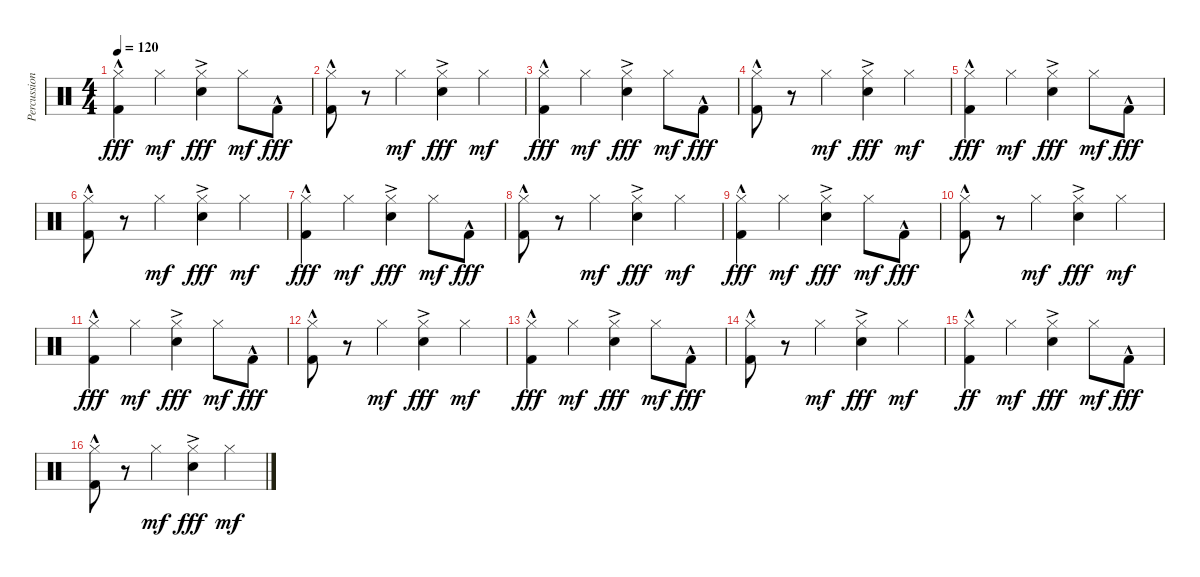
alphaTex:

\track ("Percussion" "Percussion") {instrument percussion}
\staff {score}
\articulation defaults
\ts (4 4)
\tempo 120
\clef neutral
\ks c
("Hi-Hat (closed)" "Kick (hit) 2"{hac}).4{dy fff} "Hi-Hat (closed)".4{dy mf} ("Hi-Hat (closed)" "Electric Snare (hit)"{ac}).4{dy fff} "Hi-Hat (closed)".8{dy mf} "Kick (hit) 2"{hac}.8{dy fff} |
("Hi-Hat (closed)" "Kick (hit) 2"{hac}).8 r.8 "Hi-Hat (closed)".4{dy mf} ("Hi-Hat (closed)" "Electric Snare (hit)"{ac}).4{dy fff} "Hi-Hat (closed)".4{dy mf} |
("Hi-Hat (closed)" "Kick (hit) 2"{hac}).4{dy fff} "Hi-Hat (closed)".4{dy mf} ("Hi-Hat (closed)" "Electric Snare (hit)"{ac}).4{dy fff} "Hi-Hat (closed)".8{dy mf} "Kick (hit) 2"{hac}.8{dy fff} |
("Hi-Hat (closed)" "Kick (hit) 2"{hac}).8 r.8 "Hi-Hat (closed)".4{dy mf} ("Hi-Hat (closed)" "Electric Snare (hit)"{ac}).4{dy fff} "Hi-Hat (closed)".4{dy mf} |
("Hi-Hat (closed)" "Kick (hit) 2"{hac}).4{dy fff} "Hi-Hat (closed)".4{dy mf} ("Hi-Hat (closed)" "Electric Snare (hit)"{ac}).4{dy fff} "Hi-Hat (closed)".8{dy mf} "Kick (hit) 2"{hac}.8{dy fff} |
("Hi-Hat (closed)" "Kick (hit) 2"{hac}).8 r.8 "Hi-Hat (closed)".4{dy mf} ("Hi-Hat (closed)" "Electric Snare (hit)"{ac}).4{dy fff} "Hi-Hat (closed)".4{dy mf} |
("Hi-Hat (closed)" "Kick (hit) 2"{hac}).4{dy fff} "Hi-Hat (closed)".4{dy mf} ("Hi-Hat (closed)" "Electric Snare (hit)"{ac}).4{dy fff} "Hi-Hat (closed)".8{dy mf} "Kick (hit) 2"{hac}.8{dy fff} |
("Hi-Hat (closed)" "Kick (hit) 2"{hac}).8 r.8 "Hi-Hat (closed)".4{dy mf} ("Hi-Hat (closed)" "Electric Snare (hit)"{ac}).4{dy fff} "Hi-Hat (closed)".4{dy mf} |
("Hi-Hat (closed)" "Kick (hit) 2"{hac}).4{dy fff} "Hi-Hat (closed)".4{dy mf} ("Hi-Hat (closed)" "Electric Snare (hit)"{ac}).4{dy fff} "Hi-Hat (closed)".8{dy mf} "Kick (hit) 2"{hac}.8{dy fff} |
("Hi-Hat (closed)" "Kick (hit) 2"{hac}).8 r.8 "Hi-Hat (closed)".4{dy mf} ("Hi-Hat (closed)" "Electric Snare (hit)"{ac}).4{dy fff} "Hi-Hat (closed)".4{dy mf} |
("Hi-Hat (closed)" "Kick (hit) 2"{hac}).4{dy fff} "Hi-Hat (closed)".4{dy mf} ("Hi-Hat (closed)" "Electric Snare (hit)"{ac}).4{dy fff} "Hi-Hat (closed)".8{dy mf} "Kick (hit) 2"{hac}.8{dy fff} |
("Hi-Hat (closed)" "Kick (hit) 2"{hac}).8 r.8 "Hi-Hat (closed)".4{dy mf} ("Hi-Hat (closed)" "Electric Snare (hit)"{ac}).4{dy fff} "Hi-Hat (closed)".4{dy mf} |
("Hi-Hat (closed)" "Kick (hit) 2"{hac}).4{dy fff} "Hi-Hat (closed)".4{dy mf} ("Hi-Hat (closed)" "Electric Snare (hit)"{ac}).4{dy fff} "Hi-Hat (closed)".8{dy mf} "Kick (hit) 2"{hac}.8{dy fff} |
("Hi-Hat (closed)" "Kick (hit) 2"{hac}).8 r.8 "Hi-Hat (closed)".4{dy mf} ("Hi-Hat (closed)" "Electric Snare (hit)"{ac}).4{dy fff} "Hi-Hat (closed)".4{dy mf} |
("Hi-Hat (closed)" "Kick (hit) 2"{hac}).4{dy ff} "Hi-Hat (closed)".4{dy mf} ("Hi-Hat (closed)" "Electric Snare (hit)"{ac}).4{dy fff} "Hi-Hat (closed)".8{dy mf} "Kick (hit) 2"{hac}.8{dy fff} |
("Hi-Hat (closed)" "Kick (hit) 2"{hac}).8 r.8 "Hi-Hat (closed)".4{dy mf} ("Hi-Hat (closed)" "Electric Snare (hit)"{ac}).4{dy fff} "Hi-Hat (closed)".4{dy mf}
